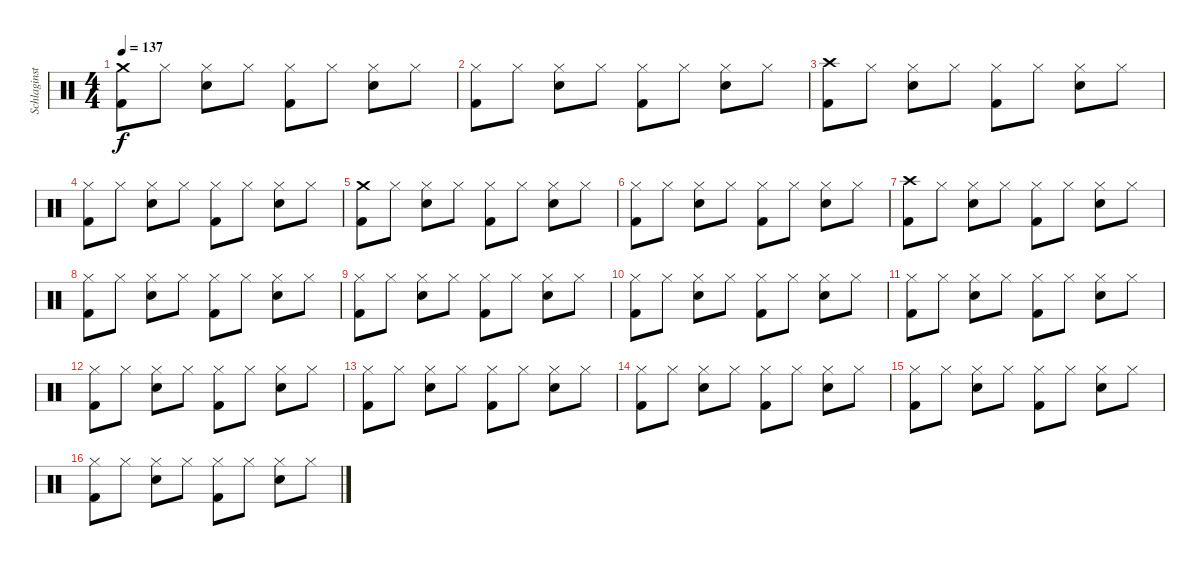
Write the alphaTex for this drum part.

\track ("Schlaginstrumente - Auswahl" "Schlaginst") {instrument percussion}
\staff {score}
\articulation defaults
\ts (4 4)
\tempo 137
\clef neutral
\ks c
("Crash medium (hit)" "Kick (hit) 2").8{dy f} "Hi-Hat (closed)".8 ("Hi-Hat (closed)" "Electric Snare (hit)").8 "Hi-Hat (closed)".8 ("Hi-Hat (closed)" "Kick (hit) 2").8 "Hi-Hat (closed)".8 ("Hi-Hat (closed)" "Electric Snare (hit)").8 "Hi-Hat (closed)".8 |
("Hi-Hat (closed)" "Kick (hit) 2").8 "Hi-Hat (closed)".8 ("Hi-Hat (closed)" "Electric Snare (hit)").8 "Hi-Hat (closed)".8 ("Hi-Hat (closed)" "Kick (hit) 2").8 "Hi-Hat (closed)".8 ("Hi-Hat (closed)" "Electric Snare (hit)").8 "Hi-Hat (closed)".8 |
("Crash high (hit)" "Kick (hit) 2").8 "Hi-Hat (closed)".8 ("Hi-Hat (closed)" "Electric Snare (hit)").8 "Hi-Hat (closed)".8 ("Hi-Hat (closed)" "Kick (hit) 2").8 "Hi-Hat (closed)".8 ("Hi-Hat (closed)" "Electric Snare (hit)").8 "Hi-Hat (closed)".8 |
("Hi-Hat (closed)" "Kick (hit) 2").8 "Hi-Hat (closed)".8 ("Hi-Hat (closed)" "Electric Snare (hit)").8 "Hi-Hat (closed)".8 ("Hi-Hat (closed)" "Kick (hit) 2").8 "Hi-Hat (closed)".8 ("Hi-Hat (closed)" "Electric Snare (hit)").8 "Hi-Hat (closed)".8 |
("Crash medium (hit)" "Kick (hit) 2").8 "Hi-Hat (closed)".8 ("Hi-Hat (closed)" "Electric Snare (hit)").8 "Hi-Hat (closed)".8 ("Hi-Hat (closed)" "Kick (hit) 2").8 "Hi-Hat (closed)".8 ("Hi-Hat (closed)" "Electric Snare (hit)").8 "Hi-Hat (closed)".8 |
("Hi-Hat (closed)" "Kick (hit) 2").8 "Hi-Hat (closed)".8 ("Hi-Hat (closed)" "Electric Snare (hit)").8 "Hi-Hat (closed)".8 ("Hi-Hat (closed)" "Kick (hit) 2").8 "Hi-Hat (closed)".8 ("Hi-Hat (closed)" "Electric Snare (hit)").8 "Hi-Hat (closed)".8 |
("Crash high (hit)" "Kick (hit) 2").8 "Hi-Hat (closed)".8 ("Hi-Hat (closed)" "Electric Snare (hit)").8 "Hi-Hat (closed)".8 ("Hi-Hat (closed)" "Kick (hit) 2").8 "Hi-Hat (closed)".8 ("Hi-Hat (closed)" "Electric Snare (hit)").8 "Hi-Hat (closed)".8 |
("Hi-Hat (closed)" "Kick (hit) 2").8 "Hi-Hat (closed)".8 ("Hi-Hat (closed)" "Electric Snare (hit)").8 "Hi-Hat (closed)".8 ("Hi-Hat (closed)" "Kick (hit) 2").8 "Hi-Hat (closed)".8 ("Hi-Hat (closed)" "Electric Snare (hit)").8 "Hi-Hat (closed)".8 |
("Hi-Hat (closed)" "Kick (hit) 2").8 "Hi-Hat (closed)".8 ("Hi-Hat (closed)" "Electric Snare (hit)").8 "Hi-Hat (closed)".8 ("Hi-Hat (closed)" "Kick (hit) 2").8 "Hi-Hat (closed)".8 ("Hi-Hat (closed)" "Electric Snare (hit)").8 "Hi-Hat (closed)".8 |
("Hi-Hat (closed)" "Kick (hit) 2").8 "Hi-Hat (closed)".8 ("Hi-Hat (closed)" "Electric Snare (hit)").8 "Hi-Hat (closed)".8 ("Hi-Hat (closed)" "Kick (hit) 2").8 "Hi-Hat (closed)".8 ("Hi-Hat (closed)" "Electric Snare (hit)").8 "Hi-Hat (closed)".8 |
("Hi-Hat (closed)" "Kick (hit) 2").8 "Hi-Hat (closed)".8 ("Hi-Hat (closed)" "Electric Snare (hit)").8 "Hi-Hat (closed)".8 ("Hi-Hat (closed)" "Kick (hit) 2").8 "Hi-Hat (closed)".8 ("Hi-Hat (closed)" "Electric Snare (hit)").8 "Hi-Hat (closed)".8 |
("Hi-Hat (closed)" "Kick (hit) 2").8 "Hi-Hat (closed)".8 ("Hi-Hat (closed)" "Electric Snare (hit)").8 "Hi-Hat (closed)".8 ("Hi-Hat (closed)" "Kick (hit) 2").8 "Hi-Hat (closed)".8 ("Hi-Hat (closed)" "Electric Snare (hit)").8 "Hi-Hat (closed)".8 |
("Hi-Hat (closed)" "Kick (hit) 2").8 "Hi-Hat (closed)".8 ("Hi-Hat (closed)" "Electric Snare (hit)").8 "Hi-Hat (closed)".8 ("Hi-Hat (closed)" "Kick (hit) 2").8 "Hi-Hat (closed)".8 ("Hi-Hat (closed)" "Electric Snare (hit)").8 "Hi-Hat (closed)".8 |
("Hi-Hat (closed)" "Kick (hit) 2").8 "Hi-Hat (closed)".8 ("Hi-Hat (closed)" "Electric Snare (hit)").8 "Hi-Hat (closed)".8 ("Hi-Hat (closed)" "Kick (hit) 2").8 "Hi-Hat (closed)".8 ("Hi-Hat (closed)" "Electric Snare (hit)").8 "Hi-Hat (closed)".8 |
("Hi-Hat (closed)" "Kick (hit) 2").8 "Hi-Hat (closed)".8 ("Hi-Hat (closed)" "Electric Snare (hit)").8 "Hi-Hat (closed)".8 ("Hi-Hat (closed)" "Kick (hit) 2").8 "Hi-Hat (closed)".8 ("Hi-Hat (closed)" "Electric Snare (hit)").8 "Hi-Hat (closed)".8 |
("Hi-Hat (closed)" "Kick (hit) 2").8 "Hi-Hat (closed)".8 ("Hi-Hat (closed)" "Electric Snare (hit)").8 "Hi-Hat (closed)".8 ("Hi-Hat (closed)" "Kick (hit) 2").8 "Hi-Hat (closed)".8 ("Hi-Hat (closed)" "Electric Snare (hit)").8 "Hi-Hat (closed)".8
